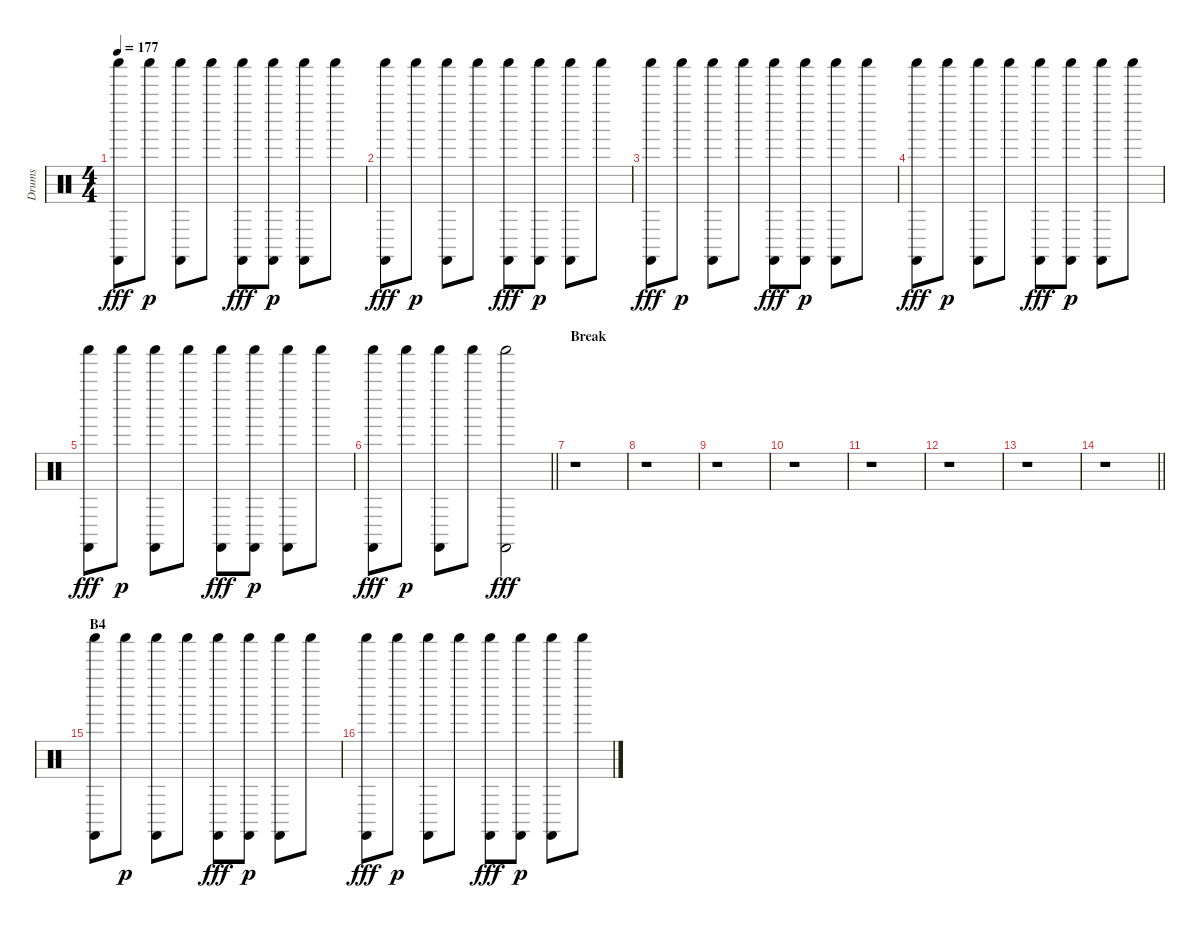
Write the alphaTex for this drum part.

\track ("Drums" "Drums") {instrument percussion}
\staff {score}
\articulation defaults
\ts (4 4)
\tempo 177
\clef neutral
\ks c
("Castanets (hit)" "Shaker (hit)").8{dy fff} "Shaker (hit)".8{dy p} ("Castanets (hit)" "Shaker (hit)").8 "Shaker (hit)".8 ("Castanets (hit)" "Shaker (hit)").8{dy fff} ("Castanets (hit)" "Shaker (hit)").8{dy p} ("Castanets (hit)" "Shaker (hit)").8 "Shaker (hit)".8 |
("Castanets (hit)" "Shaker (hit)").8{dy fff} "Shaker (hit)".8{dy p} ("Castanets (hit)" "Shaker (hit)").8 "Shaker (hit)".8 ("Castanets (hit)" "Shaker (hit)").8{dy fff} ("Castanets (hit)" "Shaker (hit)").8{dy p} ("Castanets (hit)" "Shaker (hit)").8 "Shaker (hit)".8 |
("Castanets (hit)" "Shaker (hit)").8{dy fff} "Shaker (hit)".8{dy p} ("Castanets (hit)" "Shaker (hit)").8 "Shaker (hit)".8 ("Castanets (hit)" "Shaker (hit)").8{dy fff} ("Castanets (hit)" "Shaker (hit)").8{dy p} ("Castanets (hit)" "Shaker (hit)").8 "Shaker (hit)".8 |
("Castanets (hit)" "Shaker (hit)").8{dy fff} "Shaker (hit)".8{dy p} ("Castanets (hit)" "Shaker (hit)").8 "Shaker (hit)".8 ("Castanets (hit)" "Shaker (hit)").8{dy fff} ("Castanets (hit)" "Shaker (hit)").8{dy p} ("Castanets (hit)" "Shaker (hit)").8 "Shaker (hit)".8 |
("Castanets (hit)" "Shaker (hit)").8{dy fff} "Shaker (hit)".8{dy p} ("Castanets (hit)" "Shaker (hit)").8 "Shaker (hit)".8 ("Castanets (hit)" "Shaker (hit)").8{dy fff} ("Castanets (hit)" "Shaker (hit)").8{dy p} ("Castanets (hit)" "Shaker (hit)").8 "Shaker (hit)".8 |
\barLineRight lightlight
("Castanets (hit)" "Shaker (hit)").8{dy fff} "Shaker (hit)".8{dy p} ("Castanets (hit)" "Shaker (hit)").8 "Shaker (hit)".8 ("Castanets (hit)" "Shaker (hit)").2{dy fff} |
\section ("" "Break")
r.1 |
r.1 |
r.1 |
r.1 |
r.1 |
r.1 |
r.1 |
\barLineRight lightlight
r.1 |
\section ("" "B4")
("Castanets (hit)" "Shaker (hit)").8 "Shaker (hit)".8{dy p} ("Castanets (hit)" "Shaker (hit)").8 "Shaker (hit)".8 ("Castanets (hit)" "Shaker (hit)").8{dy fff} ("Castanets (hit)" "Shaker (hit)").8{dy p} ("Castanets (hit)" "Shaker (hit)").8 "Shaker (hit)".8 |
("Castanets (hit)" "Shaker (hit)").8{dy fff} "Shaker (hit)".8{dy p} ("Castanets (hit)" "Shaker (hit)").8 "Shaker (hit)".8 ("Castanets (hit)" "Shaker (hit)").8{dy fff} ("Castanets (hit)" "Shaker (hit)").8{dy p} ("Castanets (hit)" "Shaker (hit)").8 "Shaker (hit)".8
